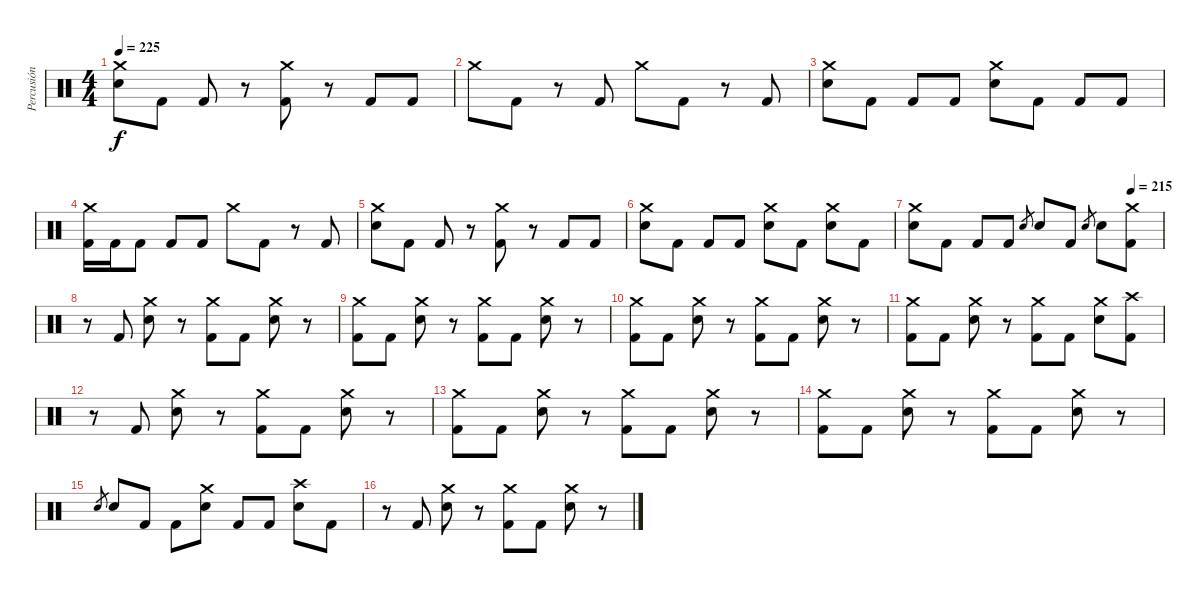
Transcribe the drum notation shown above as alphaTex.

\track ("Percusión" "Percusión") {instrument percussion}
\staff {score}
\articulation defaults
\ts (4 4)
\tempo 225
\clef neutral
\ks c
("Crash medium (hit)" "Electric Snare (hit)").8{dy f} "Kick (hit) 2".8 "Kick (hit) 2".8 r.8 ("Crash medium (hit)" "Kick (hit) 2").8 r.8 "Kick (hit) 2".8 "Kick (hit) 2".8 |
"Crash medium (hit)".8 "Kick (hit) 2".8 r.8 "Kick (hit) 2".8 "Crash medium (hit)".8 "Kick (hit) 2".8 r.8 "Kick (hit) 2".8 |
("Crash medium (hit)" "Electric Snare (hit)").8 "Kick (hit) 2".8 "Kick (hit) 2".8 "Kick (hit) 2".8 ("Crash medium (hit)" "Electric Snare (hit)").8 "Kick (hit) 2".8 "Kick (hit) 2".8 "Kick (hit) 2".8 |
("Crash medium (hit)" "Kick (hit) 2").16 "Kick (hit) 2".16 "Kick (hit) 2".8 "Kick (hit) 2".8 "Kick (hit) 2".8 "Crash medium (hit)".8 "Kick (hit) 2".8 r.8 "Kick (hit) 2".8 |
("Crash medium (hit)" "Electric Snare (hit)").8 "Kick (hit) 2".8 "Kick (hit) 2".8 r.8 ("Crash medium (hit)" "Kick (hit) 2").8 r.8 "Kick (hit) 2".8 "Kick (hit) 2".8 |
("Crash medium (hit)" "Electric Snare (hit)").8 "Kick (hit) 2".8 "Kick (hit) 2".8 "Kick (hit) 2".8 ("Crash medium (hit)" "Electric Snare (hit)").8 "Kick (hit) 2".8 ("Crash medium (hit)" "Electric Snare (hit)").8 "Kick (hit) 2".8 |
\tempo (215 0.875)
("Crash medium (hit)" "Electric Snare (hit)").8 "Kick (hit) 2".8 "Kick (hit) 2".8 "Kick (hit) 2".8 "Electric Snare (hit)".8{gr} "Electric Snare (hit)".8 "Kick (hit) 2".8 "Electric Snare (hit)".8{gr} "Electric Snare (hit)".8 ("Crash medium (hit)" "Kick (hit) 2").8 |
r.8 "Kick (hit) 2".8 ("Crash medium (hit)" "Electric Snare (hit)").8 r.8 ("Crash medium (hit)" "Kick (hit) 2").8 "Kick (hit) 2".8 ("Crash medium (hit)" "Electric Snare (hit)").8 r.8 |
("Crash medium (hit)" "Kick (hit) 2").8 "Kick (hit) 2".8 ("Crash medium (hit)" "Electric Snare (hit)").8 r.8 ("Crash medium (hit)" "Kick (hit) 2").8 "Kick (hit) 2".8 ("Crash medium (hit)" "Electric Snare (hit)").8 r.8 |
("Crash medium (hit)" "Kick (hit) 2").8 "Kick (hit) 2".8 ("Crash medium (hit)" "Electric Snare (hit)").8 r.8 ("Crash medium (hit)" "Kick (hit) 2").8 "Kick (hit) 2".8 ("Crash medium (hit)" "Electric Snare (hit)").8 r.8 |
("Crash medium (hit)" "Kick (hit) 2").8 "Kick (hit) 2".8 ("Crash medium (hit)" "Electric Snare (hit)").8 r.8 ("Crash medium (hit)" "Kick (hit) 2").8 "Kick (hit) 2".8 ("Crash medium (hit)" "Electric Snare (hit)").8 ("Crash high (hit)" "Kick (hit) 2").8 |
r.8 "Kick (hit) 2".8 ("Crash medium (hit)" "Electric Snare (hit)").8 r.8 ("Crash medium (hit)" "Kick (hit) 2").8 "Kick (hit) 2".8 ("Crash medium (hit)" "Electric Snare (hit)").8 r.8 |
("Crash medium (hit)" "Kick (hit) 2").8 "Kick (hit) 2".8 ("Crash medium (hit)" "Electric Snare (hit)").8 r.8 ("Crash medium (hit)" "Kick (hit) 2").8 "Kick (hit) 2".8 ("Crash medium (hit)" "Electric Snare (hit)").8 r.8 |
("Crash medium (hit)" "Kick (hit) 2").8 "Kick (hit) 2".8 ("Crash medium (hit)" "Electric Snare (hit)").8 r.8 ("Crash medium (hit)" "Kick (hit) 2").8 "Kick (hit) 2".8 ("Crash medium (hit)" "Electric Snare (hit)").8 r.8 |
"Electric Snare (hit)".8{gr} "Electric Snare (hit)".8 "Kick (hit) 2".8 "Kick (hit) 2".8 ("Crash medium (hit)" "Electric Snare (hit)").8 "Kick (hit) 2".8 "Kick (hit) 2".8 ("Crash high (hit)" "Electric Snare (hit)").8 "Kick (hit) 2".8 |
r.8 "Kick (hit) 2".8 ("Crash medium (hit)" "Electric Snare (hit)").8 r.8 ("Crash medium (hit)" "Kick (hit) 2").8 "Kick (hit) 2".8 ("Crash medium (hit)" "Electric Snare (hit)").8 r.8
